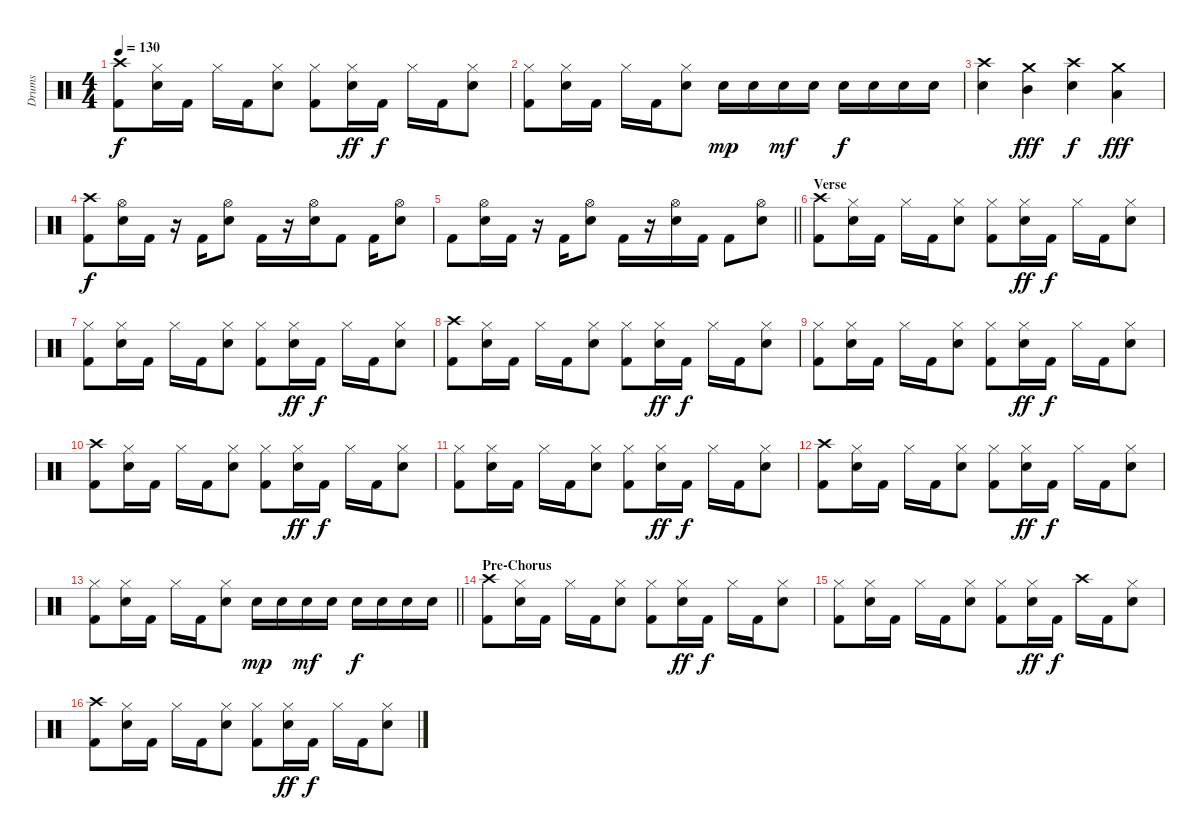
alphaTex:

\track ("Drums" "Drums") {instrument percussion}
\staff {score}
\articulation defaults
\ts (4 4)
\tempo 130
\clef neutral
\ks c
("Crash high (hit)" "Kick (hit) 2").8{dy f} ("Hi-Hat (closed)" "Snare (hit) 2").16 "Kick (hit) 2".16 "Hi-Hat (closed)".16 "Kick (hit) 2".16 ("Hi-Hat (closed)" "Snare (hit) 2").8 ("Hi-Hat (closed)" "Kick (hit) 2").8 ("Hi-Hat (closed)" "Snare (hit) 2").16{dy ff} "Kick (hit) 2".16{dy f} "Hi-Hat (closed)".16 "Kick (hit) 2".16 ("Hi-Hat (closed)" "Snare (hit) 2").8 |
("Hi-Hat (closed)" "Kick (hit) 2").8 ("Hi-Hat (closed)" "Snare (hit) 2").16 "Kick (hit) 2".16 "Hi-Hat (closed)".16 "Kick (hit) 2".16 ("Hi-Hat (closed)" "Snare (hit) 2").8 "Snare (hit) 2".16{dy mp} "Snare (hit) 2".16 "Snare (hit) 2".16{dy mf} "Snare (hit) 2".16 "Snare (hit) 2".16{dy f} "Snare (hit) 2".16 "Snare (hit) 2".16 "Snare (hit) 2".16 |
("Crash high (hit)" "Snare (hit) 2").4 ("Crash medium (hit)" "Mid Tom (hit)").4{dy fff} ("Crash high (hit)" "Snare (hit) 2").4{dy f} ("Crash medium (hit)" "Low Tom (hit)").4{dy fff} |
("Crash high (hit)" "Kick (hit) 2").8{dy f} ("Hi-Hat (open)" "Snare (hit) 2").16 "Kick (hit) 2".16 r.16 "Kick (hit) 2".16 ("Hi-Hat (open)" "Snare (hit) 2").8 "Kick (hit) 2".16 r.16 ("Hi-Hat (open)" "Snare (hit) 2").16 "Kick (hit) 2".8 "Kick (hit) 2".16 ("Hi-Hat (open)" "Snare (hit) 2").8 |
\barLineRight lightlight "Kick (hit) 2".8
("Hi-Hat (open)" "Snare (hit) 2").16 "Kick (hit) 2".16 r.16 "Kick (hit) 2".16 ("Hi-Hat (open)" "Snare (hit) 2").8 "Kick (hit) 2".16 r.16 ("Hi-Hat (open)" "Snare (hit) 2").16 "Kick (hit) 2".16 "Kick (hit) 2".8 ("Hi-Hat (open)" "Snare (hit) 2").8 |
\section ("" "Verse")
("Crash high (hit)" "Kick (hit) 2").8 ("Hi-Hat (closed)" "Snare (hit) 2").16 "Kick (hit) 2".16 "Hi-Hat (closed)".16 "Kick (hit) 2".16 ("Hi-Hat (closed)" "Snare (hit) 2").8 ("Hi-Hat (closed)" "Kick (hit) 2").8 ("Hi-Hat (closed)" "Snare (hit) 2").16{dy ff} "Kick (hit) 2".16{dy f} "Hi-Hat (closed)".16 "Kick (hit) 2".16 ("Hi-Hat (closed)" "Snare (hit) 2").8 |
("Hi-Hat (closed)" "Kick (hit) 2").8 ("Hi-Hat (closed)" "Snare (hit) 2").16 "Kick (hit) 2".16 "Hi-Hat (closed)".16 "Kick (hit) 2".16 ("Hi-Hat (closed)" "Snare (hit) 2").8 ("Hi-Hat (closed)" "Kick (hit) 2").8 ("Hi-Hat (closed)" "Snare (hit) 2").16{dy ff} "Kick (hit) 2".16{dy f} "Hi-Hat (closed)".16 "Kick (hit) 2".16 ("Hi-Hat (closed)" "Snare (hit) 2").8 |
("Crash high (hit)" "Kick (hit) 2").8 ("Hi-Hat (closed)" "Snare (hit) 2").16 "Kick (hit) 2".16 "Hi-Hat (closed)".16 "Kick (hit) 2".16 ("Hi-Hat (closed)" "Snare (hit) 2").8 ("Hi-Hat (closed)" "Kick (hit) 2").8 ("Hi-Hat (closed)" "Snare (hit) 2").16{dy ff} "Kick (hit) 2".16{dy f} "Hi-Hat (closed)".16 "Kick (hit) 2".16 ("Hi-Hat (closed)" "Snare (hit) 2").8 |
("Hi-Hat (closed)" "Kick (hit) 2").8 ("Hi-Hat (closed)" "Snare (hit) 2").16 "Kick (hit) 2".16 "Hi-Hat (closed)".16 "Kick (hit) 2".16 ("Hi-Hat (closed)" "Snare (hit) 2").8 ("Hi-Hat (closed)" "Kick (hit) 2").8 ("Hi-Hat (closed)" "Snare (hit) 2").16{dy ff} "Kick (hit) 2".16{dy f} "Hi-Hat (closed)".16 "Kick (hit) 2".16 ("Hi-Hat (closed)" "Snare (hit) 2").8 |
("Crash high (hit)" "Kick (hit) 2").8 ("Hi-Hat (closed)" "Snare (hit) 2").16 "Kick (hit) 2".16 "Hi-Hat (closed)".16 "Kick (hit) 2".16 ("Hi-Hat (closed)" "Snare (hit) 2").8 ("Hi-Hat (closed)" "Kick (hit) 2").8 ("Hi-Hat (closed)" "Snare (hit) 2").16{dy ff} "Kick (hit) 2".16{dy f} "Hi-Hat (closed)".16 "Kick (hit) 2".16 ("Hi-Hat (closed)" "Snare (hit) 2").8 |
("Hi-Hat (closed)" "Kick (hit) 2").8 ("Hi-Hat (closed)" "Snare (hit) 2").16 "Kick (hit) 2".16 "Hi-Hat (closed)".16 "Kick (hit) 2".16 ("Hi-Hat (closed)" "Snare (hit) 2").8 ("Hi-Hat (closed)" "Kick (hit) 2").8 ("Hi-Hat (closed)" "Snare (hit) 2").16{dy ff} "Kick (hit) 2".16{dy f} "Hi-Hat (closed)".16 "Kick (hit) 2".16 ("Hi-Hat (closed)" "Snare (hit) 2").8 |
("Crash high (hit)" "Kick (hit) 2").8 ("Hi-Hat (closed)" "Snare (hit) 2").16 "Kick (hit) 2".16 "Hi-Hat (closed)".16 "Kick (hit) 2".16 ("Hi-Hat (closed)" "Snare (hit) 2").8 ("Hi-Hat (closed)" "Kick (hit) 2").8 ("Hi-Hat (closed)" "Snare (hit) 2").16{dy ff} "Kick (hit) 2".16{dy f} "Hi-Hat (closed)".16 "Kick (hit) 2".16 ("Hi-Hat (closed)" "Snare (hit) 2").8 |
\barLineRight lightlight
("Hi-Hat (closed)" "Kick (hit) 2").8 ("Hi-Hat (closed)" "Snare (hit) 2").16 "Kick (hit) 2".16 "Hi-Hat (closed)".16 "Kick (hit) 2".16 ("Hi-Hat (closed)" "Snare (hit) 2").8 "Snare (hit) 2".16{dy mp} "Snare (hit) 2".16 "Snare (hit) 2".16{dy mf} "Snare (hit) 2".16 "Snare (hit) 2".16{dy f} "Snare (hit) 2".16 "Snare (hit) 2".16 "Snare (hit) 2".16 |
\section ("" "Pre-Chorus")
("Crash high (hit)" "Kick (hit) 2").8 ("Hi-Hat (closed)" "Snare (hit) 2").16 "Kick (hit) 2".16 "Hi-Hat (closed)".16 "Kick (hit) 2".16 ("Hi-Hat (closed)" "Snare (hit) 2").8 ("Hi-Hat (closed)" "Kick (hit) 2").8 ("Hi-Hat (closed)" "Snare (hit) 2").16{dy ff} "Kick (hit) 2".16{dy f} "Hi-Hat (closed)".16 "Kick (hit) 2".16 ("Hi-Hat (closed)" "Snare (hit) 2").8 |
("Hi-Hat (closed)" "Kick (hit) 2").8 ("Hi-Hat (closed)" "Snare (hit) 2").16 "Kick (hit) 2".16 "Hi-Hat (closed)".16 "Kick (hit) 2".16 ("Hi-Hat (closed)" "Snare (hit) 2").8 ("Hi-Hat (closed)" "Kick (hit) 2").8 ("Hi-Hat (closed)" "Snare (hit) 2").16{dy ff} "Kick (hit) 2".16{dy f} "Crash high (hit)".16 "Kick (hit) 2".16 ("Hi-Hat (closed)" "Snare (hit) 2").8 |
("Crash high (hit)" "Kick (hit) 2").8 ("Hi-Hat (closed)" "Snare (hit) 2").16 "Kick (hit) 2".16 "Hi-Hat (closed)".16 "Kick (hit) 2".16 ("Hi-Hat (closed)" "Snare (hit) 2").8 ("Hi-Hat (closed)" "Kick (hit) 2").8 ("Hi-Hat (closed)" "Snare (hit) 2").16{dy ff} "Kick (hit) 2".16{dy f} "Hi-Hat (closed)".16 "Kick (hit) 2".16 ("Hi-Hat (closed)" "Snare (hit) 2").8
